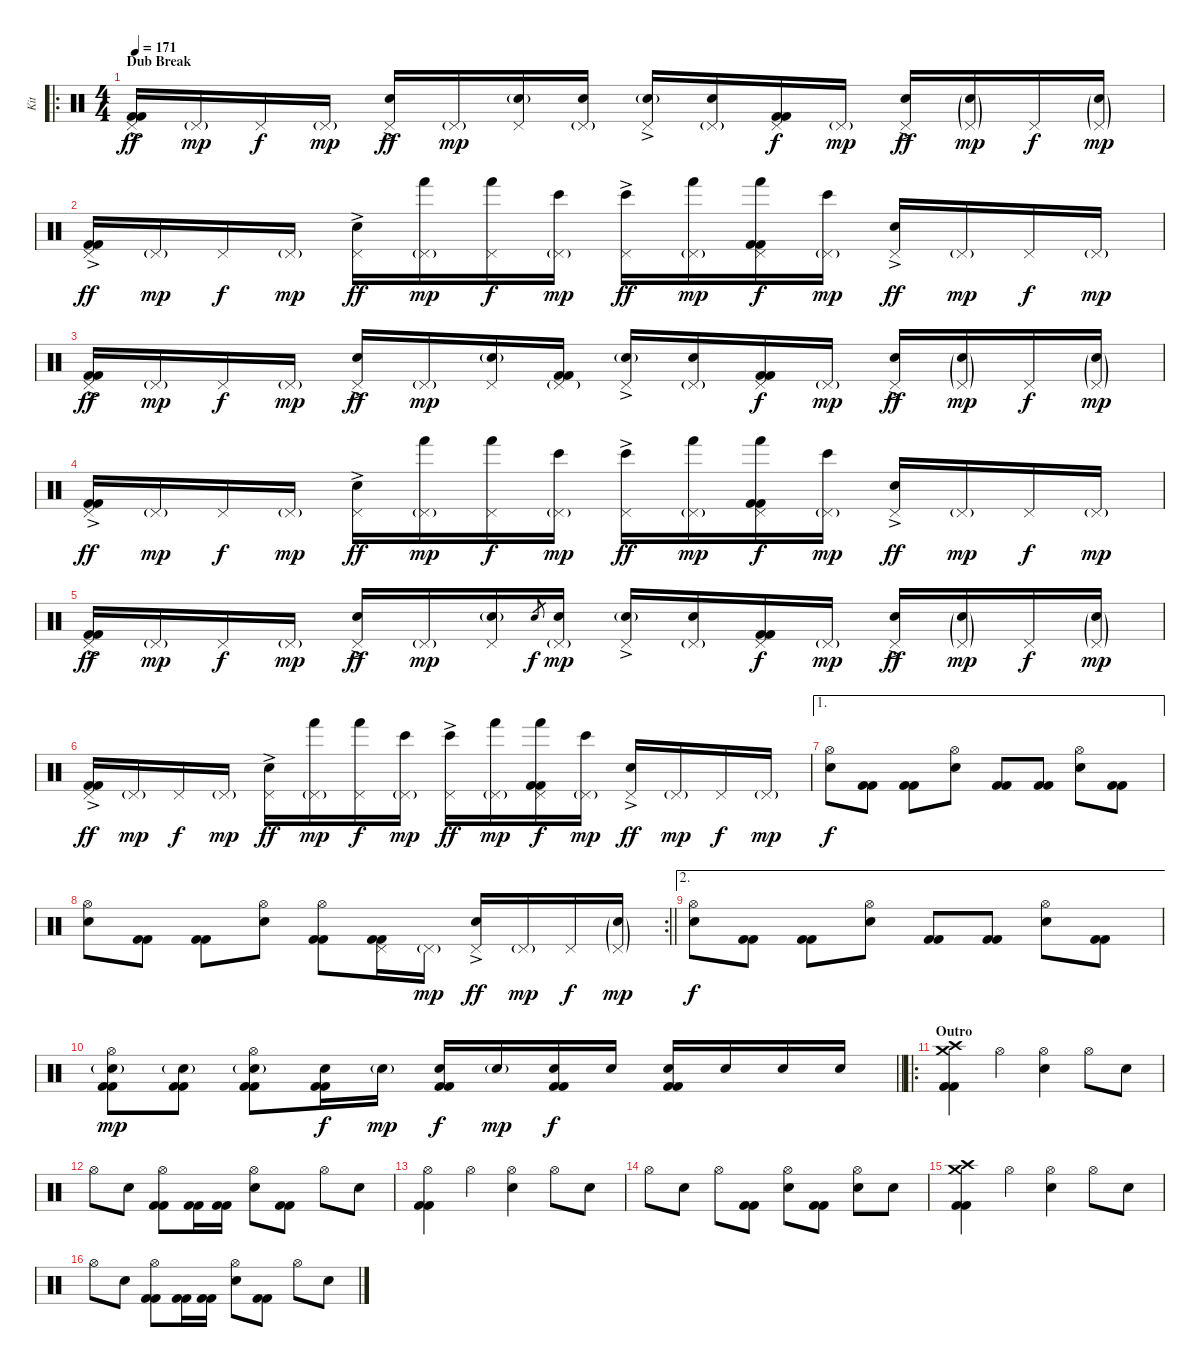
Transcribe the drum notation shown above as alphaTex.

\track ("Kit" "Kit") {instrument percussion}
\staff {score}
\articulation defaults
\ro
\ts (4 4)
\section ("" "Dub Break")
\tempo 171
\clef neutral
\ks c
("Pedal Hi-Hat (hit)"{ac} "Kick (hit) 2" "Kick (hit) 2").16{dy ff} "Pedal Hi-Hat (hit)"{g}.16{dy mp} "Pedal Hi-Hat (hit)".16{dy f} "Pedal Hi-Hat (hit)"{g}.16{dy mp} ("Pedal Hi-Hat (hit)"{ac} "Electric Snare (hit)").16{dy ff} "Pedal Hi-Hat (hit)"{g}.16{dy mp} ("Pedal Hi-Hat (hit)" "Electric Snare (hit)"{g}).16 ("Pedal Hi-Hat (hit)"{g} "Electric Snare (hit)").16 ("Pedal Hi-Hat (hit)"{ac} "Electric Snare (hit)"{g}).16 ("Pedal Hi-Hat (hit)"{g} "Electric Snare (hit)").16 ("Pedal Hi-Hat (hit)" "Kick (hit) 2" "Kick (hit) 2").16{dy f} "Pedal Hi-Hat (hit)"{g}.16{dy mp} ("Pedal Hi-Hat (hit)"{ac} "Electric Snare (hit)").16{dy ff} ("Pedal Hi-Hat (hit)"{g} "Electric Snare (hit)"{g}).16{dy mp} "Pedal Hi-Hat (hit)".16{dy f} ("Pedal Hi-Hat (hit)"{g} "Electric Snare (hit)"{g}).16{dy mp} |
("Pedal Hi-Hat (hit)"{ac} "Kick (hit) 2" "Kick (hit) 2").16{dy ff} "Pedal Hi-Hat (hit)"{g}.16{dy mp} "Pedal Hi-Hat (hit)".16{dy f} "Pedal Hi-Hat (hit)"{g}.16{dy mp} ("Pedal Hi-Hat (hit)"{ac} "Electric Snare (hit)").16{dy ff} ("Pedal Hi-Hat (hit)"{g} "Hand (hit)").16{dy mp} ("Pedal Hi-Hat (hit)" "Hand (hit)").16{dy f} ("Pedal Hi-Hat (hit)"{g} "Bongo High (hit)").16{dy mp} ("Pedal Hi-Hat (hit)"{ac} "Bongo High (hit)").16{dy ff} ("Pedal Hi-Hat (hit)"{g} "Hand (hit)").16{dy mp} ("Pedal Hi-Hat (hit)" "Hand (hit)" "Kick (hit) 2" "Kick (hit) 2").16{dy f} ("Pedal Hi-Hat (hit)"{g} "Bongo High (hit)").16{dy mp} ("Pedal Hi-Hat (hit)"{ac} "Electric Snare (hit)").16{dy ff} "Pedal Hi-Hat (hit)"{g}.16{dy mp} "Pedal Hi-Hat (hit)".16{dy f} "Pedal Hi-Hat (hit)"{g}.16{dy mp} |
("Pedal Hi-Hat (hit)"{ac} "Kick (hit) 2" "Kick (hit) 2").16{dy ff} "Pedal Hi-Hat (hit)"{g}.16{dy mp} "Pedal Hi-Hat (hit)".16{dy f} "Pedal Hi-Hat (hit)"{g}.16{dy mp} ("Pedal Hi-Hat (hit)"{ac} "Electric Snare (hit)").16{dy ff} "Pedal Hi-Hat (hit)"{g}.16{dy mp} ("Pedal Hi-Hat (hit)" "Electric Snare (hit)"{g}).16 ("Pedal Hi-Hat (hit)"{g} "Kick (hit) 2" "Kick (hit) 2").16 ("Pedal Hi-Hat (hit)"{ac} "Electric Snare (hit)"{g}).16 ("Pedal Hi-Hat (hit)"{g} "Electric Snare (hit)").16 ("Pedal Hi-Hat (hit)" "Kick (hit) 2" "Kick (hit) 2").16{dy f} "Pedal Hi-Hat (hit)"{g}.16{dy mp} ("Pedal Hi-Hat (hit)"{ac} "Electric Snare (hit)").16{dy ff} ("Pedal Hi-Hat (hit)"{g} "Electric Snare (hit)"{g}).16{dy mp} "Pedal Hi-Hat (hit)".16{dy f} ("Pedal Hi-Hat (hit)"{g} "Electric Snare (hit)"{g}).16{dy mp} |
("Pedal Hi-Hat (hit)"{ac} "Kick (hit) 2" "Kick (hit) 2").16{dy ff} "Pedal Hi-Hat (hit)"{g}.16{dy mp} "Pedal Hi-Hat (hit)".16{dy f} "Pedal Hi-Hat (hit)"{g}.16{dy mp} ("Pedal Hi-Hat (hit)"{ac} "Electric Snare (hit)").16{dy ff} ("Pedal Hi-Hat (hit)"{g} "Hand (hit)").16{dy mp} ("Pedal Hi-Hat (hit)" "Hand (hit)").16{dy f} ("Pedal Hi-Hat (hit)"{g} "Bongo High (hit)").16{dy mp} ("Pedal Hi-Hat (hit)"{ac} "Bongo High (hit)").16{dy ff} ("Pedal Hi-Hat (hit)"{g} "Hand (hit)").16{dy mp} ("Pedal Hi-Hat (hit)" "Hand (hit)" "Kick (hit) 2" "Kick (hit) 2").16{dy f} ("Pedal Hi-Hat (hit)"{g} "Bongo High (hit)").16{dy mp} ("Pedal Hi-Hat (hit)"{ac} "Electric Snare (hit)").16{dy ff} "Pedal Hi-Hat (hit)"{g}.16{dy mp} "Pedal Hi-Hat (hit)".16{dy f} "Pedal Hi-Hat (hit)"{g}.16{dy mp} |
("Pedal Hi-Hat (hit)"{ac} "Kick (hit) 2" "Kick (hit) 2").16{dy ff} "Pedal Hi-Hat (hit)"{g}.16{dy mp} "Pedal Hi-Hat (hit)".16{dy f} "Pedal Hi-Hat (hit)"{g}.16{dy mp} ("Pedal Hi-Hat (hit)"{ac} "Electric Snare (hit)").16{dy ff} "Pedal Hi-Hat (hit)"{g}.16{dy mp} ("Pedal Hi-Hat (hit)" "Electric Snare (hit)"{g}).16 "Electric Snare (hit)".8{gr dy f} ("Pedal Hi-Hat (hit)"{g} "Electric Snare (hit)").16{dy mp} ("Pedal Hi-Hat (hit)"{ac} "Electric Snare (hit)"{g}).16 ("Pedal Hi-Hat (hit)"{g} "Electric Snare (hit)").16 ("Pedal Hi-Hat (hit)" "Kick (hit) 2" "Kick (hit) 2").16{dy f} "Pedal Hi-Hat (hit)"{g}.16{dy mp} ("Pedal Hi-Hat (hit)"{ac} "Electric Snare (hit)").16{dy ff} ("Pedal Hi-Hat (hit)"{g} "Electric Snare (hit)"{g}).16{dy mp} "Pedal Hi-Hat (hit)".16{dy f} ("Pedal Hi-Hat (hit)"{g} "Electric Snare (hit)"{g}).16{dy mp} |
("Pedal Hi-Hat (hit)"{ac} "Kick (hit) 2" "Kick (hit) 2").16{dy ff} "Pedal Hi-Hat (hit)"{g}.16{dy mp} "Pedal Hi-Hat (hit)".16{dy f} "Pedal Hi-Hat (hit)"{g}.16{dy mp} ("Pedal Hi-Hat (hit)"{ac} "Electric Snare (hit)").16{dy ff} ("Pedal Hi-Hat (hit)"{g} "Hand (hit)").16{dy mp} ("Pedal Hi-Hat (hit)" "Hand (hit)").16{dy f} ("Pedal Hi-Hat (hit)"{g} "Bongo High (hit)").16{dy mp} ("Pedal Hi-Hat (hit)"{ac} "Bongo High (hit)").16{dy ff} ("Pedal Hi-Hat (hit)"{g} "Hand (hit)").16{dy mp} ("Pedal Hi-Hat (hit)" "Hand (hit)" "Kick (hit) 2" "Kick (hit) 2").16{dy f} ("Pedal Hi-Hat (hit)"{g} "Bongo High (hit)").16{dy mp} ("Pedal Hi-Hat (hit)"{ac} "Electric Snare (hit)").16{dy ff} "Pedal Hi-Hat (hit)"{g}.16{dy mp} "Pedal Hi-Hat (hit)".16{dy f} "Pedal Hi-Hat (hit)"{g}.16{dy mp} |
\ae 1
("Hi-Hat (open)" "Electric Snare (hit)").8{dy f} ("Kick (hit) 2" "Kick (hit) 2").8 ("Kick (hit) 2" "Kick (hit) 2").8 ("Hi-Hat (open)" "Electric Snare (hit)").8 ("Kick (hit) 2" "Kick (hit) 2").8 ("Kick (hit) 2" "Kick (hit) 2").8 ("Hi-Hat (open)" "Electric Snare (hit)").8 ("Kick (hit) 2" "Kick (hit) 2").8 |
\rc 2
\barLineRight lightlight
("Hi-Hat (open)" "Electric Snare (hit)").8 ("Kick (hit) 2" "Kick (hit) 2").8 ("Kick (hit) 2" "Kick (hit) 2").8 ("Hi-Hat (open)" "Electric Snare (hit)").8 ("Hi-Hat (open)" "Kick (hit) 2" "Kick (hit) 2").8 ("Pedal Hi-Hat (hit)" "Kick (hit) 2" "Kick (hit) 2").16 "Pedal Hi-Hat (hit)"{g}.16{dy mp} ("Pedal Hi-Hat (hit)"{ac} "Electric Snare (hit)").16{dy ff} "Pedal Hi-Hat (hit)"{g}.16{dy mp} "Pedal Hi-Hat (hit)".16{dy f} ("Pedal Hi-Hat (hit)"{g} "Electric Snare (hit)"{g}).16{dy mp} |
\ae 2
("Hi-Hat (open)" "Electric Snare (hit)").8{dy f} ("Kick (hit) 2" "Kick (hit) 2").8 ("Kick (hit) 2" "Kick (hit) 2").8 ("Hi-Hat (open)" "Electric Snare (hit)").8 ("Kick (hit) 2" "Kick (hit) 2").8 ("Kick (hit) 2" "Kick (hit) 2").8 ("Hi-Hat (open)" "Electric Snare (hit)").8 ("Kick (hit) 2" "Kick (hit) 2").8 |
\barLineRight lightlight
("Hi-Hat (open)" "Electric Snare (hit)"{g} "Kick (hit) 2" "Kick (hit) 2").8{dy mp} ("Electric Snare (hit)"{g} "Kick (hit) 2" "Kick (hit) 2").8 ("Hi-Hat (open)" "Electric Snare (hit)"{g} "Kick (hit) 2" "Kick (hit) 2").8 ("Electric Snare (hit)" "Kick (hit) 2" "Kick (hit) 2").16{dy f} "Electric Snare (hit)"{g}.16{dy mp} ("Electric Snare (hit)" "Kick (hit) 2" "Kick (hit) 2").16{dy f} "Electric Snare (hit)"{g}.16{dy mp} ("Electric Snare (hit)" "Kick (hit) 2" "Kick (hit) 2").16{dy f} "Electric Snare (hit)".16 ("Electric Snare (hit)" "Kick (hit) 2" "Kick (hit) 2").16 "Electric Snare (hit)".16 "Electric Snare (hit)".16 "Electric Snare (hit)".16 |
\ro
\section ("" "Outro")
("Crash medium (hit)" "Crash high (hit)" "Kick (hit) 2" "Kick (hit) 2").4 "Hi-Hat (open)".4 ("Hi-Hat (open)" "Electric Snare (hit)").4 "Hi-Hat (open)".8 "Electric Snare (hit)".8 |
"Hi-Hat (open)".8 "Electric Snare (hit)".8 ("Hi-Hat (open)" "Kick (hit) 2" "Kick (hit) 2").8 ("Kick (hit) 2" "Kick (hit) 2").16 ("Kick (hit) 2" "Kick (hit) 2").16 ("Hi-Hat (open)" "Electric Snare (hit)").8 ("Kick (hit) 2" "Kick (hit) 2").8 "Hi-Hat (open)".8 "Electric Snare (hit)".8 |
("Hi-Hat (open)" "Kick (hit) 2" "Kick (hit) 2").4 "Hi-Hat (open)".4 ("Hi-Hat (open)" "Electric Snare (hit)").4 "Hi-Hat (open)".8 "Electric Snare (hit)".8 |
"Hi-Hat (open)".8 "Electric Snare (hit)".8 "Hi-Hat (open)".8 ("Kick (hit) 2" "Kick (hit) 2").8 ("Hi-Hat (open)" "Electric Snare (hit)").8 ("Kick (hit) 2" "Kick (hit) 2").8 ("Hi-Hat (open)" "Electric Snare (hit)").8 "Electric Snare (hit)".8 |
("Crash medium (hit)" "Crash high (hit)" "Kick (hit) 2" "Kick (hit) 2").4 "Hi-Hat (open)".4 ("Hi-Hat (open)" "Electric Snare (hit)").4 "Hi-Hat (open)".8 "Electric Snare (hit)".8 |
"Hi-Hat (open)".8 "Electric Snare (hit)".8 ("Hi-Hat (open)" "Kick (hit) 2" "Kick (hit) 2").8 ("Kick (hit) 2" "Kick (hit) 2").16 ("Kick (hit) 2" "Kick (hit) 2").16 ("Hi-Hat (open)" "Electric Snare (hit)").8 ("Kick (hit) 2" "Kick (hit) 2").8 "Hi-Hat (open)".8 "Electric Snare (hit)".8
